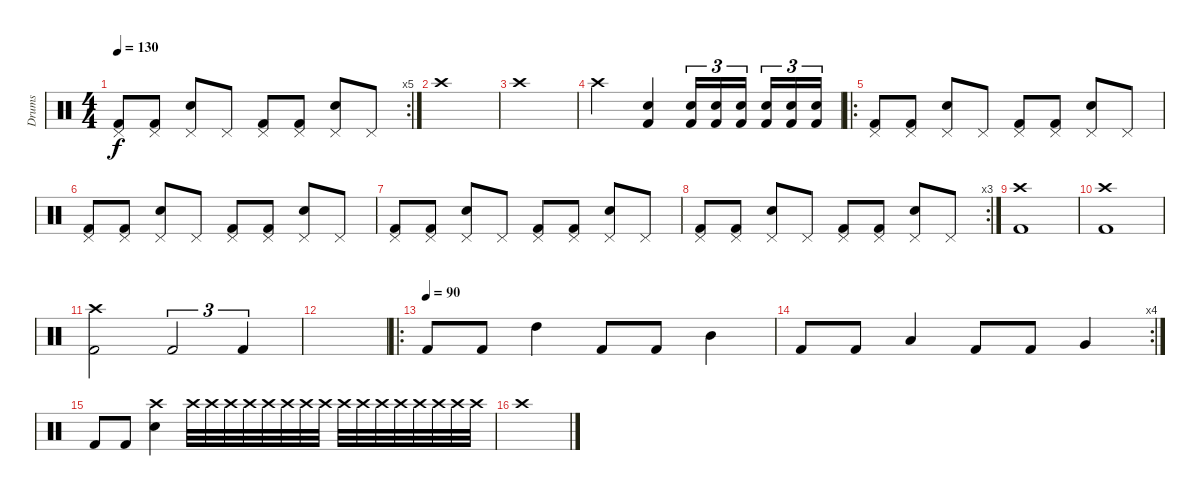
\track ("Drums" "Drums") {instrument percussion}
\staff {score}
\articulation defaults
\rc 5
\ts (4 4)
\tempo 130
\clef neutral
\ks c
("Pedal Hi-Hat (hit)" "Kick (hit) 2").8{dy f} ("Pedal Hi-Hat (hit)" "Kick (hit) 2").8 ("Pedal Hi-Hat (hit)" "Snare (hit) 2").8 "Pedal Hi-Hat (hit)".8 ("Pedal Hi-Hat (hit)" "Kick (hit) 2").8 ("Pedal Hi-Hat (hit)" "Kick (hit) 2").8 ("Pedal Hi-Hat (hit)" "Snare (hit) 2").8 "Pedal Hi-Hat (hit)".8 |
"Crash high (hit)".1 |
"Crash high (hit)".1 |
"Crash high (hit)".2 ("Kick (hit) 2" "Snare (hit) 2").4 ("Kick (hit) 2" "Snare (hit) 2").16{tu (3 2)} ("Kick (hit) 2" "Snare (hit) 2").16{tu (3 2)} ("Kick (hit) 2" "Snare (hit) 2").16{tu (3 2)} ("Kick (hit) 2" "Snare (hit) 2").16{tu (3 2)} ("Kick (hit) 2" "Snare (hit) 2").16{tu (3 2)} ("Kick (hit) 2" "Snare (hit) 2").16{tu (3 2)} |
\ro
("Pedal Hi-Hat (hit)" "Kick (hit) 2").8 ("Pedal Hi-Hat (hit)" "Kick (hit) 2").8 ("Pedal Hi-Hat (hit)" "Snare (hit) 2").8 "Pedal Hi-Hat (hit)".8 ("Pedal Hi-Hat (hit)" "Kick (hit) 2").8 ("Pedal Hi-Hat (hit)" "Kick (hit) 2").8 ("Pedal Hi-Hat (hit)" "Snare (hit) 2").8 "Pedal Hi-Hat (hit)".8 |
("Pedal Hi-Hat (hit)" "Kick (hit) 2").8 ("Pedal Hi-Hat (hit)" "Kick (hit) 2").8 ("Pedal Hi-Hat (hit)" "Snare (hit) 2").8 "Pedal Hi-Hat (hit)".8 ("Pedal Hi-Hat (hit)" "Kick (hit) 2").8 ("Pedal Hi-Hat (hit)" "Kick (hit) 2").8 ("Pedal Hi-Hat (hit)" "Snare (hit) 2").8 "Pedal Hi-Hat (hit)".8 |
("Pedal Hi-Hat (hit)" "Kick (hit) 2").8 ("Pedal Hi-Hat (hit)" "Kick (hit) 2").8 ("Pedal Hi-Hat (hit)" "Snare (hit) 2").8 "Pedal Hi-Hat (hit)".8 ("Pedal Hi-Hat (hit)" "Kick (hit) 2").8 ("Pedal Hi-Hat (hit)" "Kick (hit) 2").8 ("Pedal Hi-Hat (hit)" "Snare (hit) 2").8 "Pedal Hi-Hat (hit)".8 |
\rc 3
("Pedal Hi-Hat (hit)" "Kick (hit) 2").8 ("Pedal Hi-Hat (hit)" "Kick (hit) 2").8 ("Pedal Hi-Hat (hit)" "Snare (hit) 2").8 "Pedal Hi-Hat (hit)".8 ("Pedal Hi-Hat (hit)" "Kick (hit) 2").8 ("Pedal Hi-Hat (hit)" "Kick (hit) 2").8 ("Pedal Hi-Hat (hit)" "Snare (hit) 2").8 "Pedal Hi-Hat (hit)".8 |
("Kick (hit) 2" "Crash high (hit)").1 |
("Crash high (hit)" "Kick (hit) 2").1 |
("Kick (hit) 2" "Crash high (hit)").2 "Kick (hit) 2".2{tu (3 2)} "Kick (hit) 2".4{tu (3 2)} |
|
\ro
\tempo (90)
"Kick (hit) 2".8 "Kick (hit) 2".8 "High Tom (hit)".4 "Kick (hit) 2".8 "Kick (hit) 2".8 "Mid Tom (hit)".4 |
\rc 4 "Kick (hit) 2".8 "Kick (hit) 2".8 "Low Tom (hit)".4 "Kick (hit) 2".8 "Kick (hit) 2".8 "Very Low Tom (hit)".4
|
"Kick (hit) 2".8 "Kick (hit) 2".8 ("Crash high (hit)" "Snare (hit) 2").4 "Crash high (hit)".32 "Crash high (hit)".32 "Crash high (hit)".32 "Crash high (hit)".32 "Crash high (hit)".32 "Crash high (hit)".32 "Crash high (hit)".32 "Crash high (hit)".32 "Crash high (hit)".32 "Crash high (hit)".32 "Crash high (hit)".32 "Crash high (hit)".32 "Crash high (hit)".32 "Crash high (hit)".32 "Crash high (hit)".32 "Crash high (hit)".32 |
"Crash high (hit)".1
